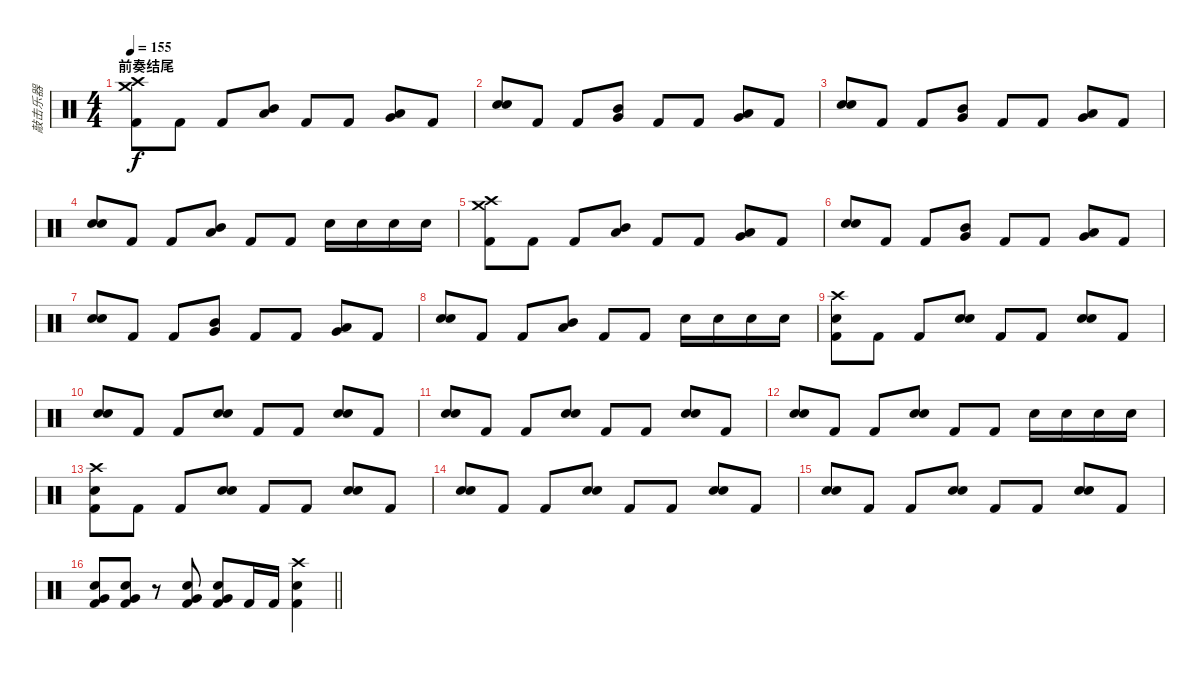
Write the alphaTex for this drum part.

\track ("敲击乐器" "敲击乐器") {instrument percussion}
\staff {score}
\articulation defaults
\ts (4 4)
\section ("" "前奏结尾")
\tempo 155
\clef neutral
\ks c
("Crash high (hit)" "Crash medium (hit)" "Kick (hit) 2").8{dy f} "Kick (hit) 2".8 "Kick (hit) 2".8 ("Mid Tom (hit)" "Low Tom (hit)").8{bd 60} "Kick (hit) 2".8 "Kick (hit) 2".8 ("Low Tom (hit)" "Very Low Tom (hit)").8{bd 60} "Kick (hit) 2".8 |
("Snare (hit) 2" "Snare (hit) 2").8{bd 60} "Kick (hit) 2".8 "Kick (hit) 2".8 ("Very Low Tom (hit)" "Mid Tom (hit)").8{bd 60} "Kick (hit) 2".8 "Kick (hit) 2".8 ("Low Tom (hit)" "Very Low Tom (hit)").8{bd 60} "Kick (hit) 2".8 |
("Snare (hit) 2" "Snare (hit) 2").8{bd 60} "Kick (hit) 2".8 "Kick (hit) 2".8 ("Very Low Tom (hit)" "Mid Tom (hit)").8{bd 60} "Kick (hit) 2".8 "Kick (hit) 2".8 ("Low Tom (hit)" "Very Low Tom (hit)").8{bd 60} "Kick (hit) 2".8 |
("Snare (hit) 2" "Snare (hit) 2").8{bd 60} "Kick (hit) 2".8 "Kick (hit) 2".8 ("Mid Tom (hit)" "Low Tom (hit)").8{bd 60} "Kick (hit) 2".8 "Kick (hit) 2".8 "Snare (hit) 2".16 "Snare (hit) 2".16 "Snare (hit) 2".16 "Snare (hit) 2".16 |
("Crash high (hit)" "Crash medium (hit)" "Kick (hit) 2").8 "Kick (hit) 2".8 "Kick (hit) 2".8 ("Mid Tom (hit)" "Low Tom (hit)").8{bd 60} "Kick (hit) 2".8 "Kick (hit) 2".8 ("Low Tom (hit)" "Very Low Tom (hit)").8{bd 60} "Kick (hit) 2".8 |
("Snare (hit) 2" "Snare (hit) 2").8{bd 60} "Kick (hit) 2".8 "Kick (hit) 2".8 ("Very Low Tom (hit)" "Mid Tom (hit)").8{bd 60} "Kick (hit) 2".8 "Kick (hit) 2".8 ("Low Tom (hit)" "Very Low Tom (hit)").8{bd 60} "Kick (hit) 2".8 |
("Snare (hit) 2" "Snare (hit) 2").8{bd 60} "Kick (hit) 2".8 "Kick (hit) 2".8 ("Very Low Tom (hit)" "Mid Tom (hit)").8{bd 60} "Kick (hit) 2".8 "Kick (hit) 2".8 ("Low Tom (hit)" "Very Low Tom (hit)").8{bd 60} "Kick (hit) 2".8 |
("Snare (hit) 2" "Snare (hit) 2").8{bd 60} "Kick (hit) 2".8 "Kick (hit) 2".8 ("Mid Tom (hit)" "Low Tom (hit)").8{bd 60} "Kick (hit) 2".8 "Kick (hit) 2".8 "Snare (hit) 2".16 "Snare (hit) 2".16 "Snare (hit) 2".16 "Snare (hit) 2".16 |
("Crash high (hit)" "Snare (hit) 2" "Kick (hit) 2").8 "Kick (hit) 2".8 "Kick (hit) 2".8 ("Snare (hit) 2" "Snare (hit) 2").8{bd 60} "Kick (hit) 2".8 "Kick (hit) 2".8 ("Snare (hit) 2" "Snare (hit) 2").8{bd 60} "Kick (hit) 2".8 |
("Snare (hit) 2" "Snare (hit) 2").8{bd 60} "Kick (hit) 2".8 "Kick (hit) 2".8 ("Snare (hit) 2" "Snare (hit) 2").8{bd 60} "Kick (hit) 2".8 "Kick (hit) 2".8 ("Snare (hit) 2" "Snare (hit) 2").8{bd 60} "Kick (hit) 2".8 |
("Snare (hit) 2" "Snare (hit) 2").8{bd 60} "Kick (hit) 2".8 "Kick (hit) 2".8 ("Snare (hit) 2" "Snare (hit) 2").8{bd 60} "Kick (hit) 2".8 "Kick (hit) 2".8 ("Snare (hit) 2" "Snare (hit) 2").8{bd 60} "Kick (hit) 2".8 |
("Snare (hit) 2" "Snare (hit) 2").8{bd 60} "Kick (hit) 2".8 "Kick (hit) 2".8 ("Snare (hit) 2" "Snare (hit) 2").8{bd 60} "Kick (hit) 2".8 "Kick (hit) 2".8 "Snare (hit) 2".16 "Snare (hit) 2".16 "Snare (hit) 2".16 "Snare (hit) 2".16 |
("Crash high (hit)" "Snare (hit) 2" "Kick (hit) 2").8 "Kick (hit) 2".8 "Kick (hit) 2".8 ("Snare (hit) 2" "Snare (hit) 2").8{bd 60} "Kick (hit) 2".8 "Kick (hit) 2".8 ("Snare (hit) 2" "Snare (hit) 2").8{bd 60} "Kick (hit) 2".8 |
("Snare (hit) 2" "Snare (hit) 2").8{bd 60} "Kick (hit) 2".8 "Kick (hit) 2".8 ("Snare (hit) 2" "Snare (hit) 2").8{bd 60} "Kick (hit) 2".8 "Kick (hit) 2".8 ("Snare (hit) 2" "Snare (hit) 2").8{bd 60} "Kick (hit) 2".8 |
("Snare (hit) 2" "Snare (hit) 2").8{bd 60} "Kick (hit) 2".8 "Kick (hit) 2".8 ("Snare (hit) 2" "Snare (hit) 2").8{bd 60} "Kick (hit) 2".8 "Kick (hit) 2".8 ("Snare (hit) 2" "Snare (hit) 2").8{bd 60} "Kick (hit) 2".8 |
\barLineRight lightlight
("Snare (hit) 2" "Very Low Tom (hit)" "Kick (hit) 2").8 ("Snare (hit) 2" "Very Low Tom (hit)" "Kick (hit) 2").8 r.8 ("Snare (hit) 2" "Very Low Tom (hit)" "Kick (hit) 2").8 ("Snare (hit) 2" "Very Low Tom (hit)" "Kick (hit) 2").8 "Kick (hit) 2".16 "Kick (hit) 2".16 ("Crash high (hit)" "Snare (hit) 2" "Kick (hit) 2").4
